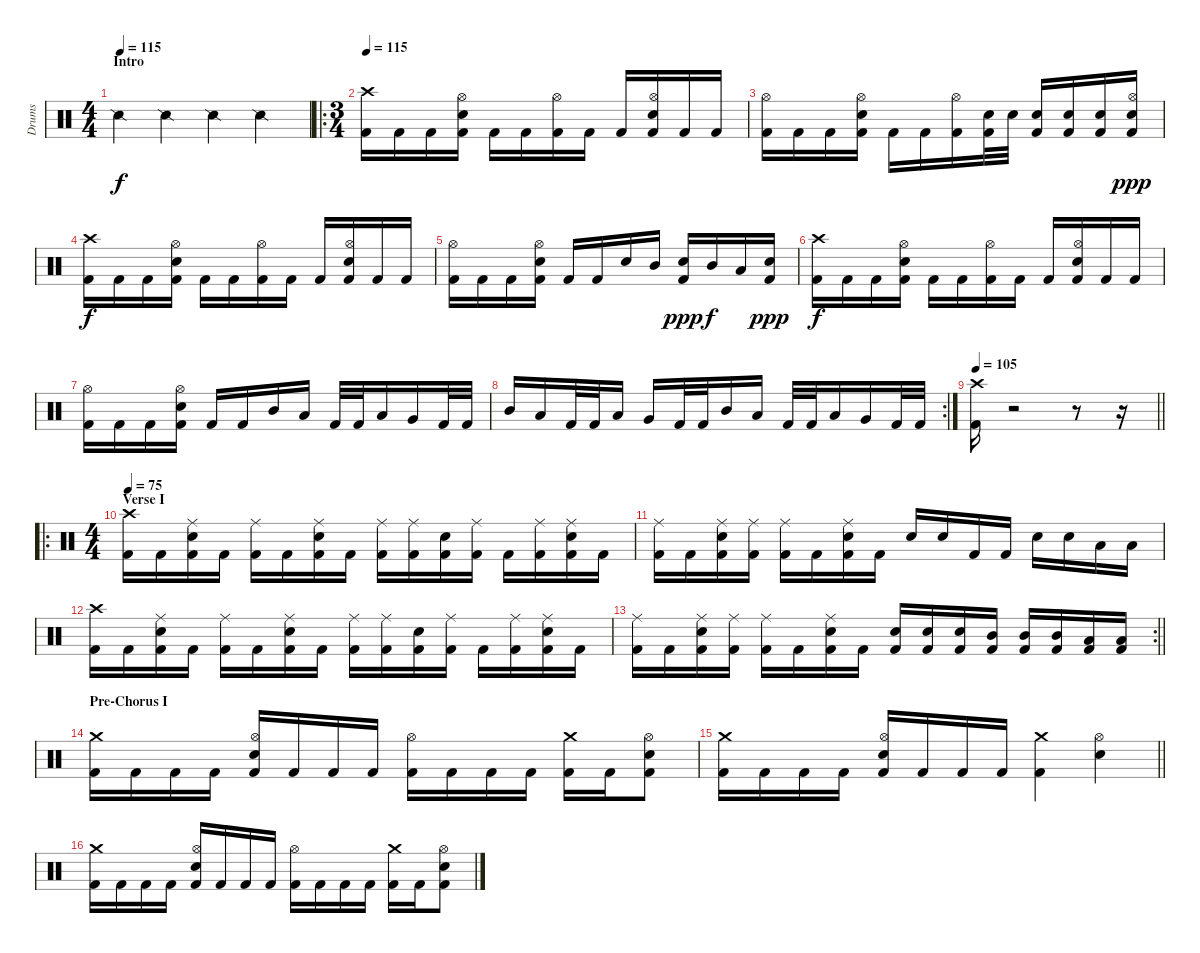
\track ("Drums" "Drums") {instrument percussion}
\staff {score}
\articulation defaults
\ts (4 4)
\section ("" "Intro")
\tempo 115
\clef neutral
\ks c "Snare (side stick) 2".4{dy f} "Snare (side stick) 2".4 "Snare (side stick) 2".4 "Snare (side stick) 2".4
|
\ro
\ts (3 4)
\tempo 115
("Crash high (hit)" "Kick (hit) 2").16 "Kick (hit) 2".16 "Kick (hit) 2".16 ("Hi-Hat (open)" "Snare (hit) 2" "Kick (hit) 2").16 "Kick (hit) 2".16 "Kick (hit) 2".16 ("Hi-Hat (open)" "Kick (hit) 2").16 "Kick (hit) 2".16 "Kick (hit) 2".16 ("Hi-Hat (open)" "Snare (hit) 2" "Kick (hit) 2").16 "Kick (hit) 2".16 "Kick (hit) 2".16 |
("Hi-Hat (open)" "Kick (hit) 2").16 "Kick (hit) 2".16 "Kick (hit) 2".16 ("Hi-Hat (open)" "Snare (hit) 2" "Kick (hit) 2").16 "Kick (hit) 2".16 "Kick (hit) 2".16 ("Hi-Hat (open)" "Kick (hit) 2").16 ("Snare (hit) 2" "Kick (hit) 2").32 "Snare (hit) 2".32 ("Snare (hit) 2" "Kick (hit) 2").16 ("Snare (hit) 2" "Kick (hit) 2").16 ("Snare (hit) 2" "Kick (hit) 2").16 ("Hi-Hat (open)" "Snare (hit) 2" "Kick (hit) 2").16{dy ppp} |
("Crash high (hit)" "Kick (hit) 2").16{dy f} "Kick (hit) 2".16 "Kick (hit) 2".16 ("Hi-Hat (open)" "Snare (hit) 2" "Kick (hit) 2").16 "Kick (hit) 2".16 "Kick (hit) 2".16 ("Hi-Hat (open)" "Kick (hit) 2").16 "Kick (hit) 2".16 "Kick (hit) 2".16 ("Hi-Hat (open)" "Snare (hit) 2" "Kick (hit) 2").16 "Kick (hit) 2".16 "Kick (hit) 2".16 |
("Hi-Hat (open)" "Kick (hit) 2").16 "Kick (hit) 2".16 "Kick (hit) 2".16 ("Hi-Hat (open)" "Snare (hit) 2" "Kick (hit) 2").16 "Kick (hit) 2".16 "Kick (hit) 2".16 "Snare (hit) 2".16 "Mid Tom (hit)".16 ("Snare (hit) 2" "Kick (hit) 2").16{dy ppp} "Mid Tom (hit)".16{dy f} "Low Tom (hit)".16 ("Snare (hit) 2" "Kick (hit) 2").16{dy ppp} |
("Crash high (hit)" "Kick (hit) 2").16{dy f} "Kick (hit) 2".16 "Kick (hit) 2".16 ("Hi-Hat (open)" "Snare (hit) 2" "Kick (hit) 2").16 "Kick (hit) 2".16 "Kick (hit) 2".16 ("Hi-Hat (open)" "Kick (hit) 2").16 "Kick (hit) 2".16 "Kick (hit) 2".16 ("Hi-Hat (open)" "Snare (hit) 2" "Kick (hit) 2").16 "Kick (hit) 2".16 "Kick (hit) 2".16 |
("Hi-Hat (open)" "Kick (hit) 2").16 "Kick (hit) 2".16 "Kick (hit) 2".16 ("Hi-Hat (open)" "Snare (hit) 2" "Kick (hit) 2").16 "Kick (hit) 2".16 "Kick (hit) 2".16 "Mid Tom (hit)".16 "Low Tom (hit)".16 "Kick (hit) 2".32 "Kick (hit) 2".32 "Low Tom (hit)".16 "Very Low Tom (hit)".16 "Kick (hit) 2".32 "Kick (hit) 2".32 |
\rc 2 "Mid Tom (hit)".16 "Low Tom (hit)".16 "Kick (hit) 2".32 "Kick (hit) 2".32 "Low Tom (hit)".16 "Very Low Tom (hit)".16 "Kick (hit) 2".32 "Kick (hit) 2".32 "Mid Tom (hit)".16 "Low Tom (hit)".16 "Kick (hit) 2".32 "Kick (hit) 2".32 "Low Tom (hit)".16 "Very Low Tom (hit)".16 "Kick (hit) 2".32 "Kick (hit) 2".32
|
\tempo 105
\barLineRight lightlight
("Crash high (hit)" "Kick (hit) 2").16 r.2 r.8 r.16 |
\ro
\ts (4 4)
\section ("" "Verse I")
\tempo 75
("Crash high (hit)" "Kick (hit) 2").16 "Kick (hit) 2".16 ("Ride (middle)" "Snare (hit) 2" "Kick (hit) 2").16 "Kick (hit) 2".16 ("Ride (middle)" "Kick (hit) 2").16 "Kick (hit) 2".16 ("Ride (middle)" "Snare (hit) 2" "Kick (hit) 2").16 "Kick (hit) 2".16 ("Ride (middle)" "Kick (hit) 2").16 ("Ride (middle)" "Kick (hit) 2").16 ("Snare (hit) 2" "Kick (hit) 2").16 ("Ride (middle)" "Kick (hit) 2").16 "Kick (hit) 2".16 ("Ride (middle)" "Kick (hit) 2").16 ("Ride (middle)" "Snare (hit) 2" "Kick (hit) 2").16 "Kick (hit) 2".16 |
("Ride (middle)" "Kick (hit) 2").16 "Kick (hit) 2".16 ("Ride (middle)" "Snare (hit) 2" "Kick (hit) 2").16 ("Ride (middle)" "Kick (hit) 2").16 ("Ride (middle)" "Kick (hit) 2").16 "Kick (hit) 2".16 ("Ride (middle)" "Snare (hit) 2" "Kick (hit) 2").16 "Kick (hit) 2".16 "Snare (hit) 2".16 "Snare (hit) 2".16 "Kick (hit) 2".16 "Kick (hit) 2".16 "Snare (hit) 2".16 "Snare (hit) 2".16 "Low Tom (hit)".16 "Low Tom (hit)".16 |
("Crash high (hit)" "Kick (hit) 2").16 "Kick (hit) 2".16 ("Ride (middle)" "Snare (hit) 2" "Kick (hit) 2").16 "Kick (hit) 2".16 ("Ride (middle)" "Kick (hit) 2").16 "Kick (hit) 2".16 ("Ride (middle)" "Snare (hit) 2" "Kick (hit) 2").16 "Kick (hit) 2".16 ("Ride (middle)" "Kick (hit) 2").16 ("Ride (middle)" "Kick (hit) 2").16 ("Snare (hit) 2" "Kick (hit) 2").16 ("Ride (middle)" "Kick (hit) 2").16 "Kick (hit) 2".16 ("Ride (middle)" "Kick (hit) 2").16 ("Ride (middle)" "Snare (hit) 2" "Kick (hit) 2").16 "Kick (hit) 2".16 |
\rc 2
\barLineRight lightlight
("Ride (middle)" "Kick (hit) 2").16 "Kick (hit) 2".16 ("Ride (middle)" "Snare (hit) 2" "Kick (hit) 2").16 ("Ride (middle)" "Kick (hit) 2").16 ("Ride (middle)" "Kick (hit) 2").16 "Kick (hit) 2".16 ("Ride (middle)" "Snare (hit) 2" "Kick (hit) 2").16 "Kick (hit) 2".16 ("Snare (hit) 2" "Kick (hit) 2").16 ("Snare (hit) 2" "Kick (hit) 2").16 ("Snare (hit) 2" "Kick (hit) 2").16 ("Mid Tom (hit)" "Kick (hit) 2").16 ("Mid Tom (hit)" "Kick (hit) 2").16 ("Mid Tom (hit)" "Kick (hit) 2").16 ("Low Tom (hit)" "Kick (hit) 2").16 ("Low Tom (hit)" "Kick (hit) 2").16 |
\section ("" "Pre-Chorus I")
("Crash medium (hit)" "Kick (hit) 2").16 "Kick (hit) 2".16 "Kick (hit) 2".16 "Kick (hit) 2".16 ("Hi-Hat (open)" "Snare (hit) 2" "Kick (hit) 2").16 "Kick (hit) 2".16 "Kick (hit) 2".16 "Kick (hit) 2".16 ("Hi-Hat (open)" "Kick (hit) 2").16 "Kick (hit) 2".16 "Kick (hit) 2".16 "Kick (hit) 2".16 ("Crash medium (hit)" "Kick (hit) 2").16 "Kick (hit) 2".16 ("Hi-Hat (open)" "Snare (hit) 2" "Kick (hit) 2").8 |
\barLineRight lightlight
("Crash medium (hit)" "Kick (hit) 2").16 "Kick (hit) 2".16 "Kick (hit) 2".16 "Kick (hit) 2".16 ("Hi-Hat (open)" "Snare (hit) 2" "Kick (hit) 2").16 "Kick (hit) 2".16 "Kick (hit) 2".16 "Kick (hit) 2".16 ("Crash medium (hit)" "Kick (hit) 2").4 ("Hi-Hat (open)" "Snare (hit) 2").4 |
("Crash medium (hit)" "Kick (hit) 2").16 "Kick (hit) 2".16 "Kick (hit) 2".16 "Kick (hit) 2".16 ("Hi-Hat (open)" "Snare (hit) 2" "Kick (hit) 2").16 "Kick (hit) 2".16 "Kick (hit) 2".16 "Kick (hit) 2".16 ("Hi-Hat (open)" "Kick (hit) 2").16 "Kick (hit) 2".16 "Kick (hit) 2".16 "Kick (hit) 2".16 ("Crash medium (hit)" "Kick (hit) 2").16 "Kick (hit) 2".16 ("Hi-Hat (open)" "Snare (hit) 2" "Kick (hit) 2").8
